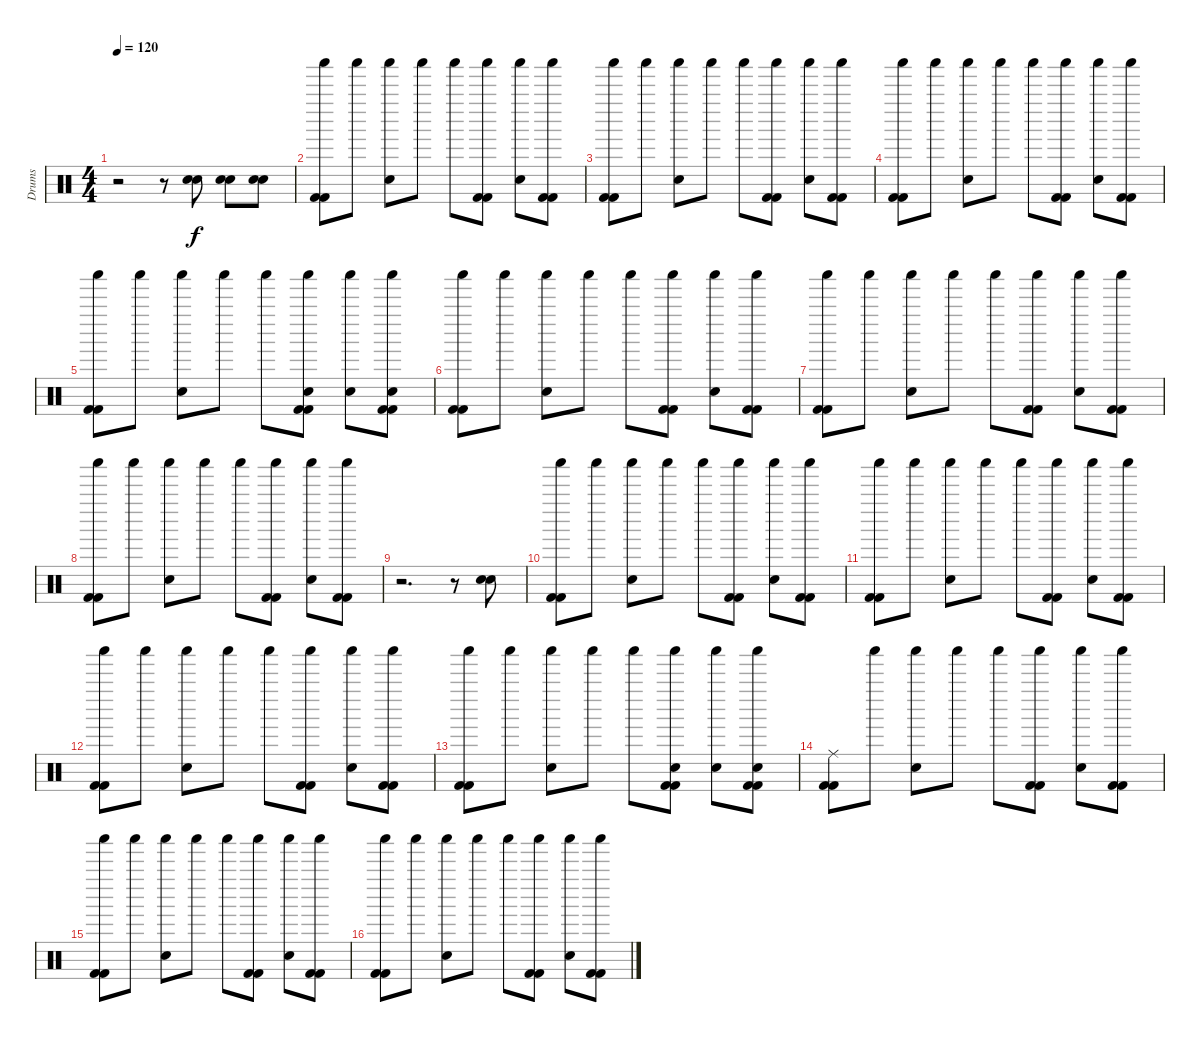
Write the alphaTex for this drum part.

\track ("Drums" "Drums") {instrument percussion}
\staff {score}
\articulation defaults
\ts (4 4)
\tempo 120
\clef neutral
\ks c
r.2{dy f} r.8 ("Electric Snare (hit)" "Electric Snare (hit)").8 ("Electric Snare (hit)" "Electric Snare (hit)").8 ("Electric Snare (hit)" "Electric Snare (hit)").8 |
("Shaker (hit)" "Kick (hit) 2" "Kick (hit) 2").8 "Shaker (hit)".8 ("Shaker (hit)" "Electric Snare (hit)").8 "Shaker (hit)".8 "Shaker (hit)".8 ("Shaker (hit)" "Kick (hit) 2" "Kick (hit) 2").8 ("Shaker (hit)" "Electric Snare (hit)").8 ("Shaker (hit)" "Kick (hit) 2" "Kick (hit) 2").8 |
("Shaker (hit)" "Kick (hit) 2" "Kick (hit) 2").8 "Shaker (hit)".8 ("Shaker (hit)" "Electric Snare (hit)").8 "Shaker (hit)".8 "Shaker (hit)".8 ("Shaker (hit)" "Kick (hit) 2" "Kick (hit) 2").8 ("Shaker (hit)" "Electric Snare (hit)").8 ("Shaker (hit)" "Kick (hit) 2" "Kick (hit) 2").8 |
("Shaker (hit)" "Kick (hit) 2" "Kick (hit) 2").8 "Shaker (hit)".8 ("Shaker (hit)" "Electric Snare (hit)").8 "Shaker (hit)".8 "Shaker (hit)".8 ("Shaker (hit)" "Kick (hit) 2" "Kick (hit) 2").8 ("Shaker (hit)" "Electric Snare (hit)").8 ("Shaker (hit)" "Kick (hit) 2" "Kick (hit) 2").8 |
("Shaker (hit)" "Kick (hit) 2" "Kick (hit) 2").8 "Shaker (hit)".8 ("Shaker (hit)" "Electric Snare (hit)").8 "Shaker (hit)".8 "Shaker (hit)".8 ("Shaker (hit)" "Electric Snare (hit)" "Kick (hit) 2" "Kick (hit) 2").8 ("Shaker (hit)" "Electric Snare (hit)").8 ("Shaker (hit)" "Electric Snare (hit)" "Kick (hit) 2" "Kick (hit) 2").8 |
("Shaker (hit)" "Kick (hit) 2" "Kick (hit) 2").8 "Shaker (hit)".8 ("Shaker (hit)" "Electric Snare (hit)").8 "Shaker (hit)".8 "Shaker (hit)".8 ("Shaker (hit)" "Kick (hit) 2" "Kick (hit) 2").8 ("Shaker (hit)" "Electric Snare (hit)").8 ("Shaker (hit)" "Kick (hit) 2" "Kick (hit) 2").8 |
("Shaker (hit)" "Kick (hit) 2" "Kick (hit) 2").8 "Shaker (hit)".8 ("Shaker (hit)" "Electric Snare (hit)").8 "Shaker (hit)".8 "Shaker (hit)".8 ("Shaker (hit)" "Kick (hit) 2" "Kick (hit) 2").8 ("Shaker (hit)" "Electric Snare (hit)").8 ("Shaker (hit)" "Kick (hit) 2" "Kick (hit) 2").8 |
("Shaker (hit)" "Kick (hit) 2" "Kick (hit) 2").8 "Shaker (hit)".8 ("Shaker (hit)" "Electric Snare (hit)").8 "Shaker (hit)".8 "Shaker (hit)".8 ("Shaker (hit)" "Kick (hit) 2" "Kick (hit) 2").8 ("Shaker (hit)" "Electric Snare (hit)").8 ("Shaker (hit)" "Kick (hit) 2" "Kick (hit) 2").8 |
r.2{d} r.8 ("Electric Snare (hit)" "Electric Snare (hit)").8 |
("Shaker (hit)" "Kick (hit) 2" "Kick (hit) 2").8 "Shaker (hit)".8 ("Shaker (hit)" "Electric Snare (hit)").8 "Shaker (hit)".8 "Shaker (hit)".8 ("Shaker (hit)" "Kick (hit) 2" "Kick (hit) 2").8 ("Shaker (hit)" "Electric Snare (hit)").8 ("Shaker (hit)" "Kick (hit) 2" "Kick (hit) 2").8 |
("Shaker (hit)" "Kick (hit) 2" "Kick (hit) 2").8 "Shaker (hit)".8 ("Shaker (hit)" "Electric Snare (hit)").8 "Shaker (hit)".8 "Shaker (hit)".8 ("Shaker (hit)" "Kick (hit) 2" "Kick (hit) 2").8 ("Shaker (hit)" "Electric Snare (hit)").8 ("Shaker (hit)" "Kick (hit) 2" "Kick (hit) 2").8 |
("Shaker (hit)" "Kick (hit) 2" "Kick (hit) 2").8 "Shaker (hit)".8 ("Shaker (hit)" "Electric Snare (hit)").8 "Shaker (hit)".8 "Shaker (hit)".8 ("Shaker (hit)" "Kick (hit) 2" "Kick (hit) 2").8 ("Shaker (hit)" "Electric Snare (hit)").8 ("Shaker (hit)" "Kick (hit) 2" "Kick (hit) 2").8 |
("Shaker (hit)" "Kick (hit) 2" "Kick (hit) 2").8 "Shaker (hit)".8 ("Shaker (hit)" "Electric Snare (hit)").8 "Shaker (hit)".8 "Shaker (hit)".8 ("Shaker (hit)" "Electric Snare (hit)" "Kick (hit) 2" "Kick (hit) 2").8 ("Shaker (hit)" "Electric Snare (hit)").8 ("Shaker (hit)" "Electric Snare (hit)" "Kick (hit) 2" "Kick (hit) 2").8 |
("Ride (middle)" "Kick (hit) 2" "Kick (hit) 2").8 "Shaker (hit)".8 ("Shaker (hit)" "Electric Snare (hit)").8 "Shaker (hit)".8 "Shaker (hit)".8 ("Shaker (hit)" "Kick (hit) 2" "Kick (hit) 2").8 ("Shaker (hit)" "Electric Snare (hit)").8 ("Shaker (hit)" "Kick (hit) 2" "Kick (hit) 2").8 |
("Shaker (hit)" "Kick (hit) 2" "Kick (hit) 2").8 "Shaker (hit)".8 ("Shaker (hit)" "Electric Snare (hit)").8 "Shaker (hit)".8 "Shaker (hit)".8 ("Shaker (hit)" "Kick (hit) 2" "Kick (hit) 2").8 ("Shaker (hit)" "Electric Snare (hit)").8 ("Shaker (hit)" "Kick (hit) 2" "Kick (hit) 2").8 |
("Shaker (hit)" "Kick (hit) 2" "Kick (hit) 2").8 "Shaker (hit)".8 ("Shaker (hit)" "Electric Snare (hit)").8 "Shaker (hit)".8 "Shaker (hit)".8 ("Shaker (hit)" "Kick (hit) 2" "Kick (hit) 2").8 ("Shaker (hit)" "Electric Snare (hit)").8 ("Shaker (hit)" "Kick (hit) 2" "Kick (hit) 2").8
